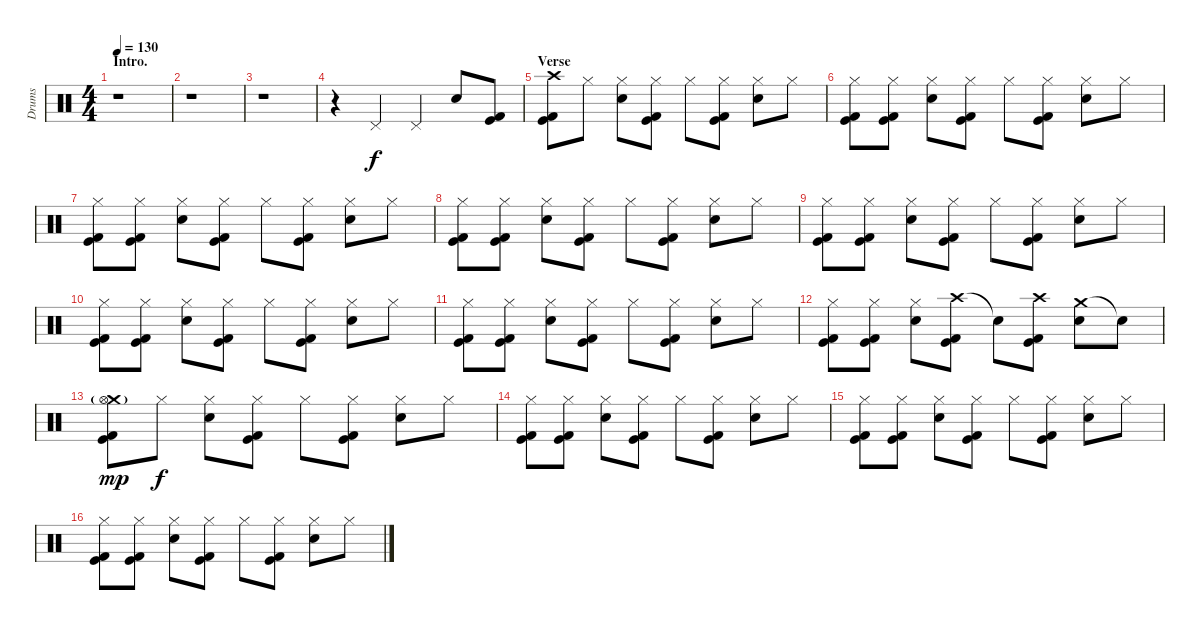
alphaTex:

\track ("Drums" "Drums") {instrument percussion}
\staff {score}
\articulation defaults
\ts (4 4)
\section ("" "Intro.")
\tempo 130
\clef neutral
\ks c
r.1{dy f} |
r.1 |
r.1 |
r.4 "Pedal Hi-Hat (hit)".4 "Pedal Hi-Hat (hit)".4 "Electric Snare (hit)".8 ("Kick (hit) 2" "Kick (hit)").8 |
\section ("" "Verse")
("Crash high (hit)" "Kick (hit) 2" "Kick (hit)").8 "Hi-Hat (closed)".8 ("Hi-Hat (closed)" "Electric Snare (hit)").8 ("Hi-Hat (closed)" "Kick (hit) 2" "Kick (hit)").8 "Hi-Hat (closed)".8 ("Hi-Hat (closed)" "Kick (hit) 2" "Kick (hit)").8 ("Hi-Hat (closed)" "Electric Snare (hit)").8 "Hi-Hat (closed)".8 |
("Hi-Hat (closed)" "Kick (hit) 2" "Kick (hit)").8 ("Hi-Hat (closed)" "Kick (hit) 2" "Kick (hit)").8 ("Hi-Hat (closed)" "Electric Snare (hit)").8 ("Hi-Hat (closed)" "Kick (hit) 2" "Kick (hit)").8 "Hi-Hat (closed)".8 ("Hi-Hat (closed)" "Kick (hit) 2" "Kick (hit)").8 ("Hi-Hat (closed)" "Electric Snare (hit)").8 "Hi-Hat (closed)".8 |
("Hi-Hat (closed)" "Kick (hit) 2" "Kick (hit)").8 ("Hi-Hat (closed)" "Kick (hit) 2" "Kick (hit)").8 ("Hi-Hat (closed)" "Electric Snare (hit)").8 ("Hi-Hat (closed)" "Kick (hit) 2" "Kick (hit)").8 "Hi-Hat (closed)".8 ("Hi-Hat (closed)" "Kick (hit) 2" "Kick (hit)").8 ("Hi-Hat (closed)" "Electric Snare (hit)").8 "Hi-Hat (closed)".8 |
("Hi-Hat (closed)" "Kick (hit) 2" "Kick (hit)").8 ("Hi-Hat (closed)" "Kick (hit) 2" "Kick (hit)").8 ("Hi-Hat (closed)" "Electric Snare (hit)").8 ("Hi-Hat (closed)" "Kick (hit) 2" "Kick (hit)").8 "Hi-Hat (closed)".8 ("Hi-Hat (closed)" "Kick (hit) 2" "Kick (hit)").8 ("Hi-Hat (closed)" "Electric Snare (hit)").8 "Hi-Hat (closed)".8 |
("Hi-Hat (closed)" "Kick (hit) 2" "Kick (hit)").8 ("Hi-Hat (closed)" "Kick (hit) 2" "Kick (hit)").8 ("Hi-Hat (closed)" "Electric Snare (hit)").8 ("Hi-Hat (closed)" "Kick (hit) 2" "Kick (hit)").8 "Hi-Hat (closed)".8 ("Hi-Hat (closed)" "Kick (hit) 2" "Kick (hit)").8 ("Hi-Hat (closed)" "Electric Snare (hit)").8 "Hi-Hat (closed)".8 |
("Hi-Hat (closed)" "Kick (hit) 2" "Kick (hit)").8 ("Hi-Hat (closed)" "Kick (hit) 2" "Kick (hit)").8 ("Hi-Hat (closed)" "Electric Snare (hit)").8 ("Hi-Hat (closed)" "Kick (hit) 2" "Kick (hit)").8 "Hi-Hat (closed)".8 ("Hi-Hat (closed)" "Kick (hit) 2" "Kick (hit)").8 ("Hi-Hat (closed)" "Electric Snare (hit)").8 "Hi-Hat (closed)".8 |
("Hi-Hat (closed)" "Kick (hit) 2" "Kick (hit)").8 ("Hi-Hat (closed)" "Kick (hit) 2" "Kick (hit)").8 ("Hi-Hat (closed)" "Electric Snare (hit)").8 ("Hi-Hat (closed)" "Kick (hit) 2" "Kick (hit)").8 "Hi-Hat (closed)".8 ("Hi-Hat (closed)" "Kick (hit) 2" "Kick (hit)").8 ("Hi-Hat (closed)" "Electric Snare (hit)").8 "Hi-Hat (closed)".8 |
("Hi-Hat (closed)" "Kick (hit) 2" "Kick (hit)").8 ("Hi-Hat (closed)" "Kick (hit) 2" "Kick (hit)").8 ("Hi-Hat (closed)" "Electric Snare (hit)").8 ("Crash high (hit)" "Kick (hit) 2" "Kick (hit)").8 "Snare (hit)"{t}.8 ("Crash high (hit)" "Kick (hit) 2" "Kick (hit)").8 ("Crash medium (hit)" "Electric Snare (hit)").8 "Snare (hit)"{t}.8 |
("Crash medium (hit)" "Hi-Hat (open)"{g} "Kick (hit) 2" "Kick (hit)").8{dy mp} "Hi-Hat (closed)".8{dy f} ("Hi-Hat (closed)" "Electric Snare (hit)").8 ("Hi-Hat (closed)" "Kick (hit) 2" "Kick (hit)").8 "Hi-Hat (closed)".8 ("Hi-Hat (closed)" "Kick (hit) 2" "Kick (hit)").8 ("Hi-Hat (closed)" "Electric Snare (hit)").8 "Hi-Hat (closed)".8 |
("Hi-Hat (closed)" "Kick (hit) 2" "Kick (hit)").8 ("Hi-Hat (closed)" "Kick (hit) 2" "Kick (hit)").8 ("Hi-Hat (closed)" "Electric Snare (hit)").8 ("Hi-Hat (closed)" "Kick (hit) 2" "Kick (hit)").8 "Hi-Hat (closed)".8 ("Hi-Hat (closed)" "Kick (hit) 2" "Kick (hit)").8 ("Hi-Hat (closed)" "Electric Snare (hit)").8 "Hi-Hat (closed)".8 |
("Hi-Hat (closed)" "Kick (hit) 2" "Kick (hit)").8 ("Hi-Hat (closed)" "Kick (hit) 2" "Kick (hit)").8 ("Hi-Hat (closed)" "Electric Snare (hit)").8 ("Hi-Hat (closed)" "Kick (hit) 2" "Kick (hit)").8 "Hi-Hat (closed)".8 ("Hi-Hat (closed)" "Kick (hit) 2" "Kick (hit)").8 ("Hi-Hat (closed)" "Electric Snare (hit)").8 "Hi-Hat (closed)".8 |
("Hi-Hat (closed)" "Kick (hit) 2" "Kick (hit)").8 ("Hi-Hat (closed)" "Kick (hit) 2" "Kick (hit)").8 ("Hi-Hat (closed)" "Electric Snare (hit)").8 ("Hi-Hat (closed)" "Kick (hit) 2" "Kick (hit)").8 "Hi-Hat (closed)".8 ("Hi-Hat (closed)" "Kick (hit) 2" "Kick (hit)").8 ("Hi-Hat (closed)" "Electric Snare (hit)").8 "Hi-Hat (closed)".8
